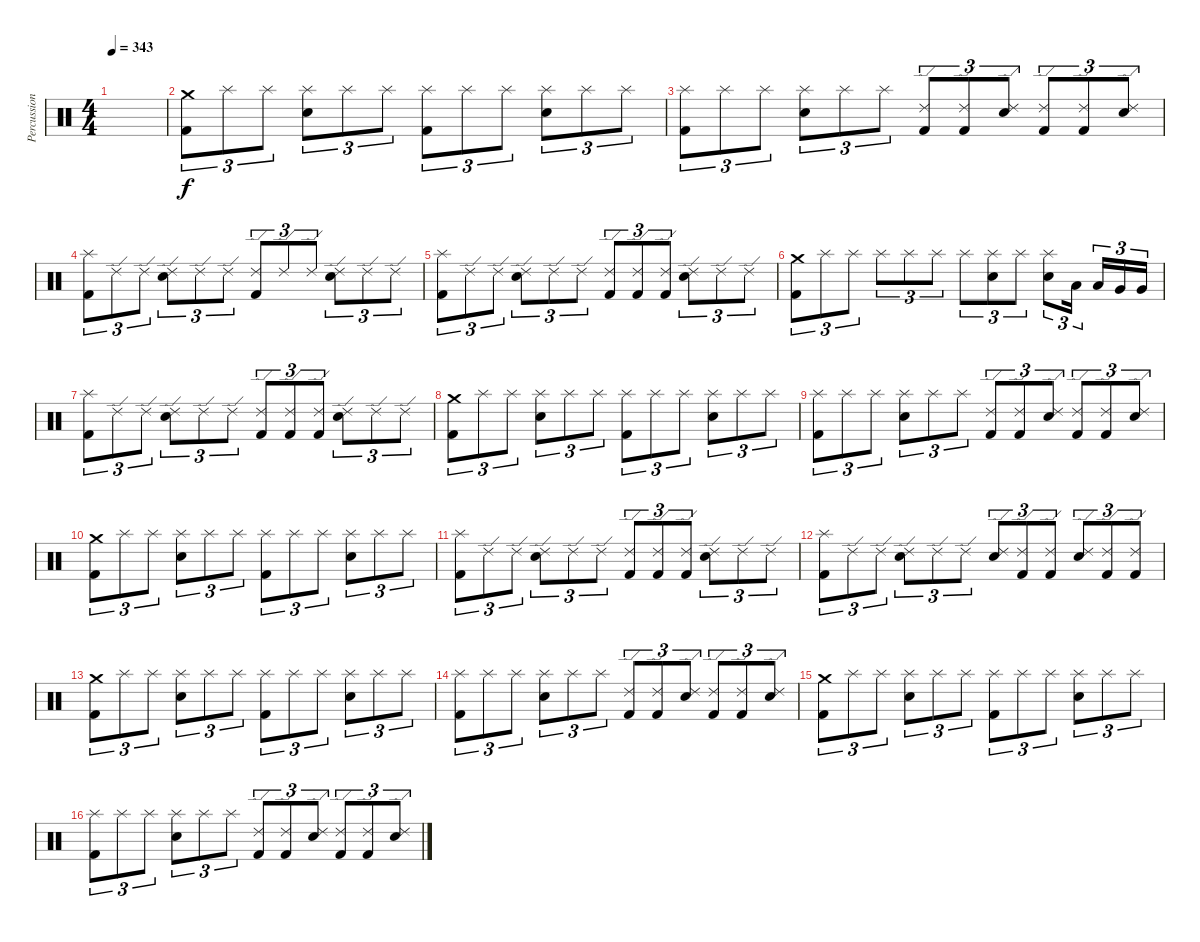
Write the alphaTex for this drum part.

\track ("Percussion" "Percussion") {instrument percussion}
\staff {score}
\articulation defaults
\ts (4 4)
\tempo 343
\clef neutral
\ks c
|
("Crash medium (hit)" "Kick (hit) 2").8{tu (3 2)} "Splash (hit)".8{tu (3 2)} "Splash (hit)".8{tu (3 2)} ("Splash (hit)" "Snare (hit) 2").8{tu (3 2)} "Splash (hit)".8{tu (3 2)} "Splash (hit)".8{tu (3 2)} ("Splash (hit)" "Kick (hit) 2").8{tu (3 2)} "Splash (hit)".8{tu (3 2)} "Splash (hit)".8{tu (3 2)} ("Splash (hit)" "Snare (hit) 2").8{tu (3 2)} "Splash (hit)".8{tu (3 2)} "Splash (hit)".8{tu (3 2)} |
("Splash (hit)" "Kick (hit) 2").8{tu (3 2)} "Splash (hit)".8{tu (3 2)} "Splash (hit)".8{tu (3 2)} ("Splash (hit)" "Snare (hit) 2").8{tu (3 2)} "Splash (hit)".8{tu (3 2)} "Splash (hit)".8{tu (3 2)} ("Ride (edge) 2" "Kick (hit) 2").8{tu (3 2)} ("Ride (edge) 2" "Kick (hit) 2").8{tu (3 2)} ("Ride (edge) 2" "Snare (hit) 2").8{tu (3 2)} ("Ride (edge) 2" "Kick (hit) 2").8{tu (3 2)} ("Ride (edge) 2" "Kick (hit) 2").8{tu (3 2)} ("Ride (edge) 2" "Snare (hit) 2").8{tu (3 2)} |
("Splash (hit)" "Kick (hit) 2").8{tu (3 2)} "Ride (edge) 2".8{tu (3 2)} "Ride (edge) 2".8{tu (3 2)} ("Ride (edge) 2" "Snare (hit) 2").8{tu (3 2)} "Ride (edge) 2".8{tu (3 2)} "Ride (edge) 2".8{tu (3 2)} ("Ride (edge) 2" "Kick (hit) 2").8{tu (3 2)} "Ride (edge) 2".8{tu (3 2)} "Ride (edge) 2".8{tu (3 2)} ("Ride (edge) 2" "Snare (hit) 2").8{tu (3 2)} "Ride (edge) 2".8{tu (3 2)} "Ride (edge) 2".8{tu (3 2)} |
("Splash (hit)" "Kick (hit) 2").8{tu (3 2)} "Ride (edge) 2".8{tu (3 2)} "Ride (edge) 2".8{tu (3 2)} ("Ride (edge) 2" "Snare (hit) 2").8{tu (3 2)} "Ride (edge) 2".8{tu (3 2)} "Ride (edge) 2".8{tu (3 2)} ("Ride (edge) 2" "Kick (hit) 2").8{tu (3 2)} ("Ride (edge) 2" "Kick (hit) 2").8{tu (3 2)} ("Ride (edge) 2" "Kick (hit) 2").8{tu (3 2)} ("Ride (edge) 2" "Snare (hit) 2").8{tu (3 2)} "Ride (edge) 2".8{tu (3 2)} "Ride (edge) 2".8{tu (3 2)} |
("Crash medium (hit)" "Kick (hit) 2").8{tu (3 2)} "Splash (hit)".8{tu (3 2)} "Splash (hit)".8{tu (3 2)} "Splash (hit)".8{tu (3 2)} "Splash (hit)".8{tu (3 2)} "Splash (hit)".8{tu (3 2)} "Splash (hit)".8{tu (3 2)} ("Splash (hit)" "Snare (hit) 2").8{tu (3 2)} "Splash (hit)".8{tu (3 2)} ("Splash (hit)" "Snare (hit) 2").8{tu (3 2)} "Low Tom (hit)".16{tu (3 2)} "Low Tom (hit)".16{tu (3 2)} "Very Low Tom (hit)".16{tu (3 2)} "Very Low Tom (hit)".16{tu (3 2)} |
("Splash (hit)" "Kick (hit) 2").8{tu (3 2)} "Ride (edge) 2".8{tu (3 2)} "Ride (edge) 2".8{tu (3 2)} ("Ride (edge) 2" "Snare (hit) 2").8{tu (3 2)} "Ride (edge) 2".8{tu (3 2)} "Ride (edge) 2".8{tu (3 2)} ("Ride (edge) 2" "Kick (hit) 2").8{tu (3 2)} ("Ride (edge) 2" "Kick (hit) 2").8{tu (3 2)} ("Ride (edge) 2" "Kick (hit) 2").8{tu (3 2)} ("Ride (edge) 2" "Snare (hit) 2").8{tu (3 2)} "Ride (edge) 2".8{tu (3 2)} "Ride (edge) 2".8{tu (3 2)} |
("Crash medium (hit)" "Kick (hit) 2").8{tu (3 2)} "Splash (hit)".8{tu (3 2)} "Splash (hit)".8{tu (3 2)} ("Splash (hit)" "Snare (hit) 2").8{tu (3 2)} "Splash (hit)".8{tu (3 2)} "Splash (hit)".8{tu (3 2)} ("Splash (hit)" "Kick (hit) 2").8{tu (3 2)} "Splash (hit)".8{tu (3 2)} "Splash (hit)".8{tu (3 2)} ("Splash (hit)" "Snare (hit) 2").8{tu (3 2)} "Splash (hit)".8{tu (3 2)} "Splash (hit)".8{tu (3 2)} |
("Splash (hit)" "Kick (hit) 2").8{tu (3 2)} "Splash (hit)".8{tu (3 2)} "Splash (hit)".8{tu (3 2)} ("Splash (hit)" "Snare (hit) 2").8{tu (3 2)} "Splash (hit)".8{tu (3 2)} "Splash (hit)".8{tu (3 2)} ("Ride (edge) 2" "Kick (hit) 2").8{tu (3 2)} ("Ride (edge) 2" "Kick (hit) 2").8{tu (3 2)} ("Ride (edge) 2" "Snare (hit) 2").8{tu (3 2)} ("Ride (edge) 2" "Kick (hit) 2").8{tu (3 2)} ("Ride (edge) 2" "Kick (hit) 2").8{tu (3 2)} ("Ride (edge) 2" "Snare (hit) 2").8{tu (3 2)} |
("Crash medium (hit)" "Kick (hit) 2").8{tu (3 2)} "Splash (hit)".8{tu (3 2)} "Splash (hit)".8{tu (3 2)} ("Splash (hit)" "Snare (hit) 2").8{tu (3 2)} "Splash (hit)".8{tu (3 2)} "Splash (hit)".8{tu (3 2)} ("Splash (hit)" "Kick (hit) 2").8{tu (3 2)} "Splash (hit)".8{tu (3 2)} "Splash (hit)".8{tu (3 2)} ("Splash (hit)" "Snare (hit) 2").8{tu (3 2)} "Splash (hit)".8{tu (3 2)} "Splash (hit)".8{tu (3 2)} |
("Splash (hit)" "Kick (hit) 2").8{tu (3 2)} "Ride (edge) 2".8{tu (3 2)} "Ride (edge) 2".8{tu (3 2)} ("Ride (edge) 2" "Snare (hit) 2").8{tu (3 2)} "Ride (edge) 2".8{tu (3 2)} "Ride (edge) 2".8{tu (3 2)} ("Ride (edge) 2" "Kick (hit) 2").8{tu (3 2)} ("Ride (edge) 2" "Kick (hit) 2").8{tu (3 2)} ("Ride (edge) 2" "Kick (hit) 2").8{tu (3 2)} ("Ride (edge) 2" "Snare (hit) 2").8{tu (3 2)} "Ride (edge) 2".8{tu (3 2)} "Ride (edge) 2".8{tu (3 2)} |
("Splash (hit)" "Kick (hit) 2").8{tu (3 2)} "Ride (edge) 2".8{tu (3 2)} "Ride (edge) 2".8{tu (3 2)} ("Ride (edge) 2" "Snare (hit) 2").8{tu (3 2)} "Ride (edge) 2".8{tu (3 2)} "Ride (edge) 2".8{tu (3 2)} ("Ride (edge) 2" "Snare (hit) 2").8{tu (3 2)} ("Ride (edge) 2" "Kick (hit) 2").8{tu (3 2)} ("Ride (edge) 2" "Kick (hit) 2").8{tu (3 2)} ("Ride (edge) 2" "Snare (hit) 2").8{tu (3 2)} ("Ride (edge) 2" "Kick (hit) 2").8{tu (3 2)} ("Ride (edge) 2" "Kick (hit) 2").8{tu (3 2)} |
("Crash medium (hit)" "Kick (hit) 2").8{tu (3 2)} "Splash (hit)".8{tu (3 2)} "Splash (hit)".8{tu (3 2)} ("Splash (hit)" "Snare (hit) 2").8{tu (3 2)} "Splash (hit)".8{tu (3 2)} "Splash (hit)".8{tu (3 2)} ("Splash (hit)" "Kick (hit) 2").8{tu (3 2)} "Splash (hit)".8{tu (3 2)} "Splash (hit)".8{tu (3 2)} ("Splash (hit)" "Snare (hit) 2").8{tu (3 2)} "Splash (hit)".8{tu (3 2)} "Splash (hit)".8{tu (3 2)} |
("Splash (hit)" "Kick (hit) 2").8{tu (3 2)} "Splash (hit)".8{tu (3 2)} "Splash (hit)".8{tu (3 2)} ("Splash (hit)" "Snare (hit) 2").8{tu (3 2)} "Splash (hit)".8{tu (3 2)} "Splash (hit)".8{tu (3 2)} ("Ride (edge) 2" "Kick (hit) 2").8{tu (3 2)} ("Ride (edge) 2" "Kick (hit) 2").8{tu (3 2)} ("Ride (edge) 2" "Snare (hit) 2").8{tu (3 2)} ("Ride (edge) 2" "Kick (hit) 2").8{tu (3 2)} ("Ride (edge) 2" "Kick (hit) 2").8{tu (3 2)} ("Ride (edge) 2" "Snare (hit) 2").8{tu (3 2)} |
("Crash medium (hit)" "Kick (hit) 2").8{tu (3 2)} "Splash (hit)".8{tu (3 2)} "Splash (hit)".8{tu (3 2)} ("Splash (hit)" "Snare (hit) 2").8{tu (3 2)} "Splash (hit)".8{tu (3 2)} "Splash (hit)".8{tu (3 2)} ("Splash (hit)" "Kick (hit) 2").8{tu (3 2)} "Splash (hit)".8{tu (3 2)} "Splash (hit)".8{tu (3 2)} ("Splash (hit)" "Snare (hit) 2").8{tu (3 2)} "Splash (hit)".8{tu (3 2)} "Splash (hit)".8{tu (3 2)} |
("Splash (hit)" "Kick (hit) 2").8{tu (3 2)} "Splash (hit)".8{tu (3 2)} "Splash (hit)".8{tu (3 2)} ("Splash (hit)" "Snare (hit) 2").8{tu (3 2)} "Splash (hit)".8{tu (3 2)} "Splash (hit)".8{tu (3 2)} ("Ride (edge) 2" "Kick (hit) 2").8{tu (3 2)} ("Ride (edge) 2" "Kick (hit) 2").8{tu (3 2)} ("Ride (edge) 2" "Snare (hit) 2").8{tu (3 2)} ("Ride (edge) 2" "Kick (hit) 2").8{tu (3 2)} ("Ride (edge) 2" "Kick (hit) 2").8{tu (3 2)} ("Ride (edge) 2" "Snare (hit) 2").8{tu (3 2)}
